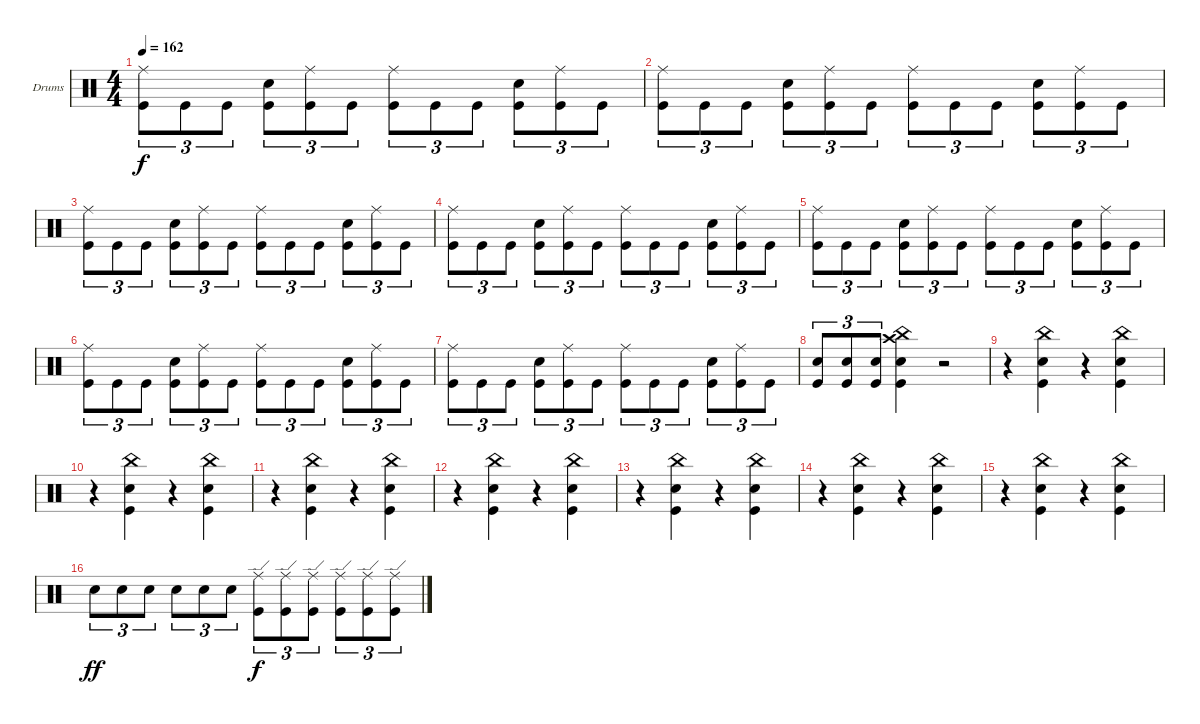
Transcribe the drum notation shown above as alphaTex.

\bracketExtendMode groupsimilarinstruments
\firstSystemTrackNameOrientation horizontal
\otherSystemsTrackNameOrientation horizontal
\track ("Drumkit" "Drums") {instrument percussion}
\staff {score}
\articulation defaults
\ts (4 4)
\tempo 162
\clef neutral
\ks c
("Kick (hit)" "Ride (middle)").8{tu (3 2) dy f} "Kick (hit)".8{tu (3 2)} "Kick (hit)".8{tu (3 2)} ("Kick (hit)" "Snare (hit) 2").8{tu (3 2)} ("Kick (hit)" "Ride (middle)").8{tu (3 2)} "Kick (hit)".8{tu (3 2)} ("Kick (hit)" "Ride (middle)").8{tu (3 2)} "Kick (hit)".8{tu (3 2)} "Kick (hit)".8{tu (3 2)} ("Kick (hit)" "Snare (hit) 2").8{tu (3 2)} ("Kick (hit)" "Ride (middle)").8{tu (3 2)} "Kick (hit)".8{tu (3 2)} |
("Kick (hit)" "Ride (middle)").8{tu (3 2)} "Kick (hit)".8{tu (3 2)} "Kick (hit)".8{tu (3 2)} ("Kick (hit)" "Snare (hit) 2").8{tu (3 2)} ("Kick (hit)" "Ride (middle)").8{tu (3 2)} "Kick (hit)".8{tu (3 2)} ("Kick (hit)" "Ride (middle)").8{tu (3 2)} "Kick (hit)".8{tu (3 2)} "Kick (hit)".8{tu (3 2)} ("Kick (hit)" "Snare (hit) 2").8{tu (3 2)} ("Kick (hit)" "Ride (middle)").8{tu (3 2)} "Kick (hit)".8{tu (3 2)} |
("Kick (hit)" "Ride (middle)").8{tu (3 2)} "Kick (hit)".8{tu (3 2)} "Kick (hit)".8{tu (3 2)} ("Kick (hit)" "Snare (hit) 2").8{tu (3 2)} ("Kick (hit)" "Ride (middle)").8{tu (3 2)} "Kick (hit)".8{tu (3 2)} ("Kick (hit)" "Ride (middle)").8{tu (3 2)} "Kick (hit)".8{tu (3 2)} "Kick (hit)".8{tu (3 2)} ("Kick (hit)" "Snare (hit) 2").8{tu (3 2)} ("Kick (hit)" "Ride (middle)").8{tu (3 2)} "Kick (hit)".8{tu (3 2)} |
("Kick (hit)" "Ride (middle)").8{tu (3 2)} "Kick (hit)".8{tu (3 2)} "Kick (hit)".8{tu (3 2)} ("Kick (hit)" "Snare (hit) 2").8{tu (3 2)} ("Kick (hit)" "Ride (middle)").8{tu (3 2)} "Kick (hit)".8{tu (3 2)} ("Kick (hit)" "Ride (middle)").8{tu (3 2)} "Kick (hit)".8{tu (3 2)} "Kick (hit)".8{tu (3 2)} ("Kick (hit)" "Snare (hit) 2").8{tu (3 2)} ("Kick (hit)" "Ride (middle)").8{tu (3 2)} "Kick (hit)".8{tu (3 2)} |
("Kick (hit)" "Ride (middle)").8{tu (3 2)} "Kick (hit)".8{tu (3 2)} "Kick (hit)".8{tu (3 2)} ("Kick (hit)" "Snare (hit) 2").8{tu (3 2)} ("Kick (hit)" "Ride (middle)").8{tu (3 2)} "Kick (hit)".8{tu (3 2)} ("Kick (hit)" "Ride (middle)").8{tu (3 2)} "Kick (hit)".8{tu (3 2)} "Kick (hit)".8{tu (3 2)} ("Kick (hit)" "Snare (hit) 2").8{tu (3 2)} ("Kick (hit)" "Ride (middle)").8{tu (3 2)} "Kick (hit)".8{tu (3 2)} |
("Kick (hit)" "Ride (middle)").8{tu (3 2)} "Kick (hit)".8{tu (3 2)} "Kick (hit)".8{tu (3 2)} ("Kick (hit)" "Snare (hit) 2").8{tu (3 2)} ("Kick (hit)" "Ride (middle)").8{tu (3 2)} "Kick (hit)".8{tu (3 2)} ("Kick (hit)" "Ride (middle)").8{tu (3 2)} "Kick (hit)".8{tu (3 2)} "Kick (hit)".8{tu (3 2)} ("Kick (hit)" "Snare (hit) 2").8{tu (3 2)} ("Kick (hit)" "Ride (middle)").8{tu (3 2)} "Kick (hit)".8{tu (3 2)} |
("Kick (hit)" "Ride (middle)").8{tu (3 2)} "Kick (hit)".8{tu (3 2)} "Kick (hit)".8{tu (3 2)} ("Kick (hit)" "Snare (hit) 2").8{tu (3 2)} ("Kick (hit)" "Ride (middle)").8{tu (3 2)} "Kick (hit)".8{tu (3 2)} ("Kick (hit)" "Ride (middle)").8{tu (3 2)} "Kick (hit)".8{tu (3 2)} "Kick (hit)".8{tu (3 2)} ("Kick (hit)" "Snare (hit) 2").8{tu (3 2)} ("Kick (hit)" "Ride (middle)").8{tu (3 2)} "Kick (hit)".8{tu (3 2)} |
("Kick (hit)" "Snare (hit) 2").8{tu (3 2)} ("Kick (hit)" "Snare (hit) 2").8{tu (3 2)} ("Kick (hit)" "Snare (hit) 2").8{tu (3 2)} ("Kick (hit)" "Snare (hit) 2" "Crash high (hit)" "China (hit)").4 r.2 |
r.4 ("Kick (hit)" "Snare (hit) 2" "China (hit)").4 r.4 ("Kick (hit)" "Snare (hit) 2" "China (hit)").4 |
r.4 ("Kick (hit)" "Snare (hit) 2" "China (hit)").4 r.4 ("Kick (hit)" "Snare (hit) 2" "China (hit)").4 |
r.4 ("Kick (hit)" "Snare (hit) 2" "China (hit)").4 r.4 ("Kick (hit)" "Snare (hit) 2" "China (hit)").4 |
r.4 ("Kick (hit)" "Snare (hit) 2" "China (hit)").4 r.4 ("Kick (hit)" "Snare (hit) 2" "China (hit)").4 |
r.4 ("Kick (hit)" "Snare (hit) 2" "China (hit)").4 r.4 ("Kick (hit)" "Snare (hit) 2" "China (hit)").4 |
r.4 ("Kick (hit)" "Snare (hit) 2" "China (hit)").4 r.4 ("Kick (hit)" "Snare (hit) 2" "China (hit)").4 |
r.4 ("Kick (hit)" "Snare (hit) 2" "China (hit)").4 r.4 ("Kick (hit)" "Snare (hit) 2" "China (hit)").4 |
"Snare (hit) 2".8{tu (3 2) dy ff} "Snare (hit) 2".8{tu (3 2)} "Snare (hit) 2".8{tu (3 2)} "Snare (hit) 2".8{tu (3 2)} "Snare (hit) 2".8{tu (3 2)} "Snare (hit) 2".8{tu (3 2)} ("Kick (hit)" "Ride (edge)").8{tu (3 2) dy f} ("Kick (hit)" "Ride (edge)").8{tu (3 2)} ("Kick (hit)" "Ride (edge)").8{tu (3 2)} ("Kick (hit)" "Ride (edge)").8{tu (3 2)} ("Kick (hit)" "Ride (edge)").8{tu (3 2)} ("Kick (hit)" "Ride (edge)").8{tu (3 2)}
